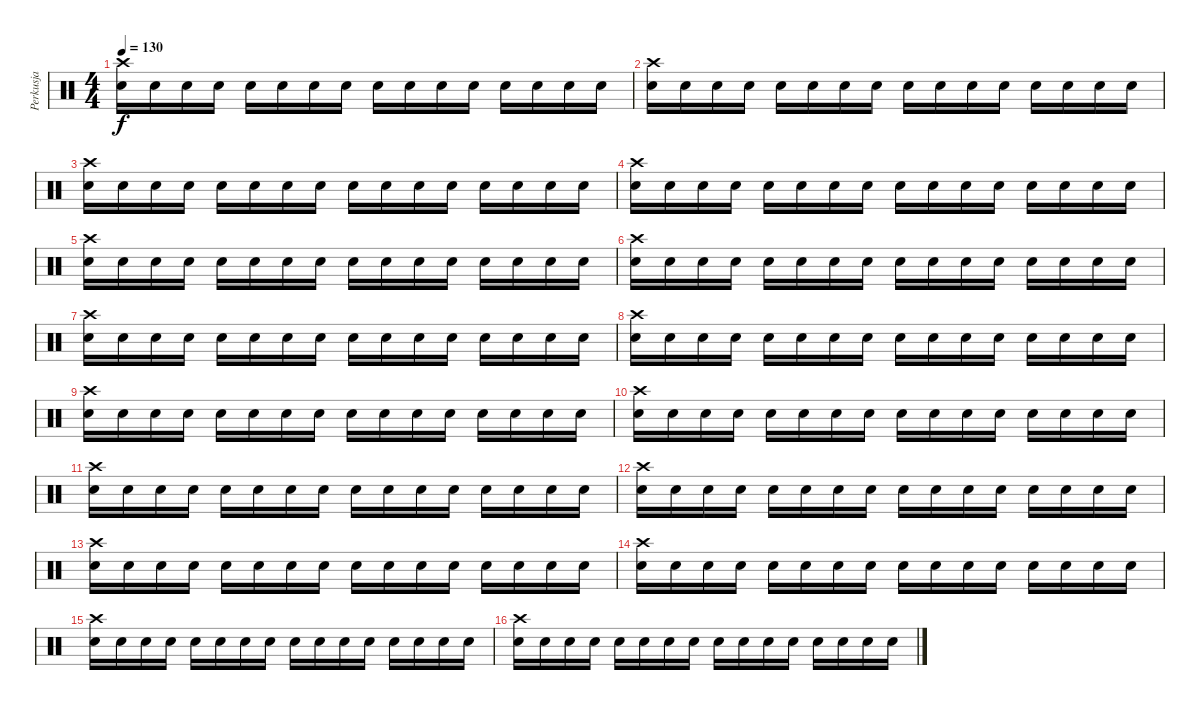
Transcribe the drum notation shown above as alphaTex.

\track ("Perkusja" "Perkusja") {instrument percussion}
\staff {score}
\articulation defaults
\ts (4 4)
\tempo 130
\clef neutral
\ks c
("Crash high (hit)" "Snare (hit) 2").16{dy f} "Snare (hit) 2".16 "Snare (hit) 2".16 "Snare (hit) 2".16 "Snare (hit) 2".16 "Snare (hit) 2".16 "Snare (hit) 2".16 "Snare (hit) 2".16 "Snare (hit) 2".16 "Snare (hit) 2".16 "Snare (hit) 2".16 "Snare (hit) 2".16 "Snare (hit) 2".16 "Snare (hit) 2".16 "Snare (hit) 2".16 "Snare (hit) 2".16 |
("Crash high (hit)" "Snare (hit) 2").16 "Snare (hit) 2".16 "Snare (hit) 2".16 "Snare (hit) 2".16 "Snare (hit) 2".16 "Snare (hit) 2".16 "Snare (hit) 2".16 "Snare (hit) 2".16 "Snare (hit) 2".16 "Snare (hit) 2".16 "Snare (hit) 2".16 "Snare (hit) 2".16 "Snare (hit) 2".16 "Snare (hit) 2".16 "Snare (hit) 2".16 "Snare (hit) 2".16 |
("Crash high (hit)" "Snare (hit) 2").16 "Snare (hit) 2".16 "Snare (hit) 2".16 "Snare (hit) 2".16 "Snare (hit) 2".16 "Snare (hit) 2".16 "Snare (hit) 2".16 "Snare (hit) 2".16 "Snare (hit) 2".16 "Snare (hit) 2".16 "Snare (hit) 2".16 "Snare (hit) 2".16 "Snare (hit) 2".16 "Snare (hit) 2".16 "Snare (hit) 2".16 "Snare (hit) 2".16 |
("Crash high (hit)" "Snare (hit) 2").16 "Snare (hit) 2".16 "Snare (hit) 2".16 "Snare (hit) 2".16 "Snare (hit) 2".16 "Snare (hit) 2".16 "Snare (hit) 2".16 "Snare (hit) 2".16 "Snare (hit) 2".16 "Snare (hit) 2".16 "Snare (hit) 2".16 "Snare (hit) 2".16 "Snare (hit) 2".16 "Snare (hit) 2".16 "Snare (hit) 2".16 "Snare (hit) 2".16 |
("Crash high (hit)" "Snare (hit) 2").16 "Snare (hit) 2".16 "Snare (hit) 2".16 "Snare (hit) 2".16 "Snare (hit) 2".16 "Snare (hit) 2".16 "Snare (hit) 2".16 "Snare (hit) 2".16 "Snare (hit) 2".16 "Snare (hit) 2".16 "Snare (hit) 2".16 "Snare (hit) 2".16 "Snare (hit) 2".16 "Snare (hit) 2".16 "Snare (hit) 2".16 "Snare (hit) 2".16 |
("Crash high (hit)" "Snare (hit) 2").16 "Snare (hit) 2".16 "Snare (hit) 2".16 "Snare (hit) 2".16 "Snare (hit) 2".16 "Snare (hit) 2".16 "Snare (hit) 2".16 "Snare (hit) 2".16 "Snare (hit) 2".16 "Snare (hit) 2".16 "Snare (hit) 2".16 "Snare (hit) 2".16 "Snare (hit) 2".16 "Snare (hit) 2".16 "Snare (hit) 2".16 "Snare (hit) 2".16 |
("Crash high (hit)" "Snare (hit) 2").16 "Snare (hit) 2".16 "Snare (hit) 2".16 "Snare (hit) 2".16 "Snare (hit) 2".16 "Snare (hit) 2".16 "Snare (hit) 2".16 "Snare (hit) 2".16 "Snare (hit) 2".16 "Snare (hit) 2".16 "Snare (hit) 2".16 "Snare (hit) 2".16 "Snare (hit) 2".16 "Snare (hit) 2".16 "Snare (hit) 2".16 "Snare (hit) 2".16 |
("Crash high (hit)" "Snare (hit) 2").16 "Snare (hit) 2".16 "Snare (hit) 2".16 "Snare (hit) 2".16 "Snare (hit) 2".16 "Snare (hit) 2".16 "Snare (hit) 2".16 "Snare (hit) 2".16 "Snare (hit) 2".16 "Snare (hit) 2".16 "Snare (hit) 2".16 "Snare (hit) 2".16 "Snare (hit) 2".16 "Snare (hit) 2".16 "Snare (hit) 2".16 "Snare (hit) 2".16 |
("Crash high (hit)" "Snare (hit) 2").16 "Snare (hit) 2".16 "Snare (hit) 2".16 "Snare (hit) 2".16 "Snare (hit) 2".16 "Snare (hit) 2".16 "Snare (hit) 2".16 "Snare (hit) 2".16 "Snare (hit) 2".16 "Snare (hit) 2".16 "Snare (hit) 2".16 "Snare (hit) 2".16 "Snare (hit) 2".16 "Snare (hit) 2".16 "Snare (hit) 2".16 "Snare (hit) 2".16 |
("Crash high (hit)" "Snare (hit) 2").16 "Snare (hit) 2".16 "Snare (hit) 2".16 "Snare (hit) 2".16 "Snare (hit) 2".16 "Snare (hit) 2".16 "Snare (hit) 2".16 "Snare (hit) 2".16 "Snare (hit) 2".16 "Snare (hit) 2".16 "Snare (hit) 2".16 "Snare (hit) 2".16 "Snare (hit) 2".16 "Snare (hit) 2".16 "Snare (hit) 2".16 "Snare (hit) 2".16 |
("Crash high (hit)" "Snare (hit) 2").16 "Snare (hit) 2".16 "Snare (hit) 2".16 "Snare (hit) 2".16 "Snare (hit) 2".16 "Snare (hit) 2".16 "Snare (hit) 2".16 "Snare (hit) 2".16 "Snare (hit) 2".16 "Snare (hit) 2".16 "Snare (hit) 2".16 "Snare (hit) 2".16 "Snare (hit) 2".16 "Snare (hit) 2".16 "Snare (hit) 2".16 "Snare (hit) 2".16 |
("Crash high (hit)" "Snare (hit) 2").16 "Snare (hit) 2".16 "Snare (hit) 2".16 "Snare (hit) 2".16 "Snare (hit) 2".16 "Snare (hit) 2".16 "Snare (hit) 2".16 "Snare (hit) 2".16 "Snare (hit) 2".16 "Snare (hit) 2".16 "Snare (hit) 2".16 "Snare (hit) 2".16 "Snare (hit) 2".16 "Snare (hit) 2".16 "Snare (hit) 2".16 "Snare (hit) 2".16 |
("Crash high (hit)" "Snare (hit) 2").16 "Snare (hit) 2".16 "Snare (hit) 2".16 "Snare (hit) 2".16 "Snare (hit) 2".16 "Snare (hit) 2".16 "Snare (hit) 2".16 "Snare (hit) 2".16 "Snare (hit) 2".16 "Snare (hit) 2".16 "Snare (hit) 2".16 "Snare (hit) 2".16 "Snare (hit) 2".16 "Snare (hit) 2".16 "Snare (hit) 2".16 "Snare (hit) 2".16 |
("Crash high (hit)" "Snare (hit) 2").16 "Snare (hit) 2".16 "Snare (hit) 2".16 "Snare (hit) 2".16 "Snare (hit) 2".16 "Snare (hit) 2".16 "Snare (hit) 2".16 "Snare (hit) 2".16 "Snare (hit) 2".16 "Snare (hit) 2".16 "Snare (hit) 2".16 "Snare (hit) 2".16 "Snare (hit) 2".16 "Snare (hit) 2".16 "Snare (hit) 2".16 "Snare (hit) 2".16 |
("Crash high (hit)" "Snare (hit) 2").16 "Snare (hit) 2".16 "Snare (hit) 2".16 "Snare (hit) 2".16 "Snare (hit) 2".16 "Snare (hit) 2".16 "Snare (hit) 2".16 "Snare (hit) 2".16 "Snare (hit) 2".16 "Snare (hit) 2".16 "Snare (hit) 2".16 "Snare (hit) 2".16 "Snare (hit) 2".16 "Snare (hit) 2".16 "Snare (hit) 2".16 "Snare (hit) 2".16 |
("Crash high (hit)" "Snare (hit) 2").16 "Snare (hit) 2".16 "Snare (hit) 2".16 "Snare (hit) 2".16 "Snare (hit) 2".16 "Snare (hit) 2".16 "Snare (hit) 2".16 "Snare (hit) 2".16 "Snare (hit) 2".16 "Snare (hit) 2".16 "Snare (hit) 2".16 "Snare (hit) 2".16 "Snare (hit) 2".16 "Snare (hit) 2".16 "Snare (hit) 2".16 "Snare (hit) 2".16
